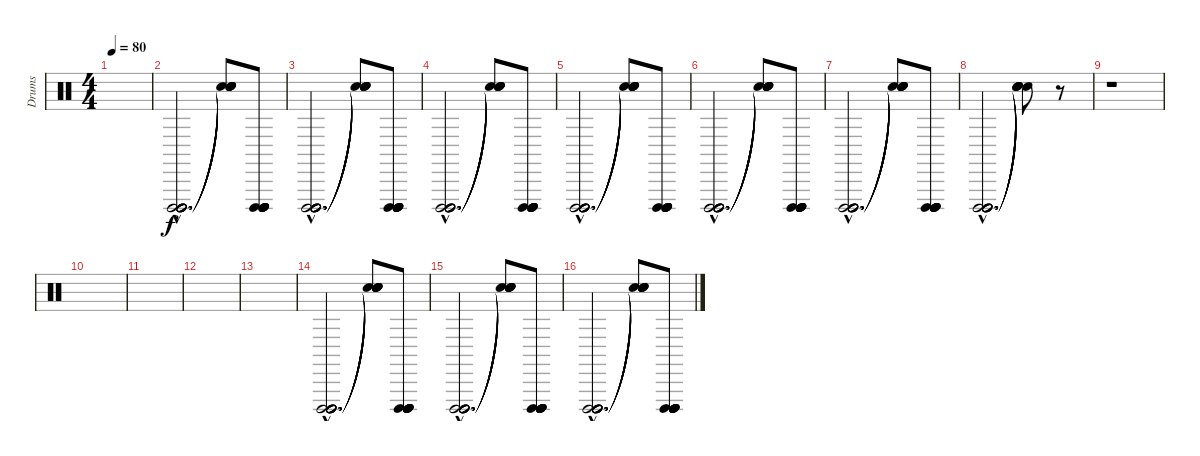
\track ("Drums" "Drums") {instrument percussion}
\staff {score}
\articulation defaults
\ts (4 4)
\tempo 80
\clef neutral
\ks c
|
("Cuica (open)"{hac} "Cuica (open)"{hac} "Cuica (open)"{hac} "Cuica (open)"{hac} "Cuica (open)"{hac} "Cuica (open)"{hac}).2{d} ("Snare (hit)"{t} "Snare (hit)"{t} "Snare (hit)"{t} "Snare (hit)"{t} "Snare (hit)"{t}).8 ("Cuica (open)" "Cuica (open)" "Cuica (open)" "Cuica (open)" "Cuica (open)" "Cuica (open)").8 |
("Cuica (open)"{hac} "Cuica (open)"{hac} "Cuica (open)"{hac} "Cuica (open)"{hac} "Cuica (open)"{hac} "Cuica (open)"{hac}).2{d} ("Snare (hit)"{t} "Snare (hit)"{t} "Snare (hit)"{t} "Snare (hit)"{t} "Snare (hit)"{t}).8 ("Cuica (open)" "Cuica (open)" "Cuica (open)" "Cuica (open)" "Cuica (open)" "Cuica (open)").8 |
("Cuica (open)"{hac} "Cuica (open)"{hac} "Cuica (open)"{hac} "Cuica (open)"{hac} "Cuica (open)"{hac} "Cuica (open)"{hac}).2{d} ("Snare (hit)"{t} "Snare (hit)"{t} "Snare (hit)"{t} "Snare (hit)"{t} "Snare (hit)"{t}).8 ("Cuica (open)" "Cuica (open)" "Cuica (open)" "Cuica (open)" "Cuica (open)" "Cuica (open)").8 |
("Cuica (open)"{hac} "Cuica (open)"{hac} "Cuica (open)"{hac} "Cuica (open)"{hac} "Cuica (open)"{hac} "Cuica (open)"{hac}).2{d} ("Snare (hit)"{t} "Snare (hit)"{t} "Snare (hit)"{t} "Snare (hit)"{t} "Snare (hit)"{t}).8 ("Cuica (open)" "Cuica (open)" "Cuica (open)" "Cuica (open)" "Cuica (open)" "Cuica (open)").8 |
("Cuica (open)"{hac} "Cuica (open)"{hac} "Cuica (open)"{hac} "Cuica (open)"{hac} "Cuica (open)"{hac} "Cuica (open)"{hac}).2{d} ("Snare (hit)"{t} "Snare (hit)"{t} "Snare (hit)"{t} "Snare (hit)"{t} "Snare (hit)"{t}).8 ("Cuica (open)" "Cuica (open)" "Cuica (open)" "Cuica (open)" "Cuica (open)" "Cuica (open)").8 |
("Cuica (open)"{hac} "Cuica (open)"{hac} "Cuica (open)"{hac} "Cuica (open)"{hac} "Cuica (open)"{hac} "Cuica (open)"{hac}).2{d} ("Snare (hit)"{t} "Snare (hit)"{t} "Snare (hit)"{t} "Snare (hit)"{t} "Snare (hit)"{t}).8 ("Cuica (open)" "Cuica (open)" "Cuica (open)" "Cuica (open)" "Cuica (open)" "Cuica (open)").8 |
("Cuica (open)"{hac} "Cuica (open)"{hac} "Cuica (open)"{hac} "Cuica (open)"{hac} "Cuica (open)"{hac} "Cuica (open)"{hac}).2{d} ("Snare (hit)"{t} "Snare (hit)"{t} "Snare (hit)"{t} "Snare (hit)"{t} "Snare (hit)"{t}).8 r.8 |
r.1 |
|
|
|
|
("Cuica (open)"{hac} "Cuica (open)"{hac} "Cuica (open)"{hac} "Cuica (open)"{hac} "Cuica (open)"{hac} "Cuica (open)"{hac}).2{d} ("Snare (hit)"{t} "Snare (hit)"{t} "Snare (hit)"{t} "Snare (hit)"{t} "Snare (hit)"{t}).8 ("Cuica (open)" "Cuica (open)" "Cuica (open)" "Cuica (open)" "Cuica (open)" "Cuica (open)").8 |
("Cuica (open)"{hac} "Cuica (open)"{hac} "Cuica (open)"{hac} "Cuica (open)"{hac} "Cuica (open)"{hac} "Cuica (open)"{hac}).2{d} ("Snare (hit)"{t} "Snare (hit)"{t} "Snare (hit)"{t} "Snare (hit)"{t} "Snare (hit)"{t}).8 ("Cuica (open)" "Cuica (open)" "Cuica (open)" "Cuica (open)" "Cuica (open)" "Cuica (open)").8 |
("Cuica (open)"{hac} "Cuica (open)"{hac} "Cuica (open)"{hac} "Cuica (open)"{hac} "Cuica (open)"{hac} "Cuica (open)"{hac}).2{d} ("Snare (hit)"{t} "Snare (hit)"{t} "Snare (hit)"{t} "Snare (hit)"{t} "Snare (hit)"{t}).8 ("Cuica (open)" "Cuica (open)" "Cuica (open)" "Cuica (open)" "Cuica (open)" "Cuica (open)").8
